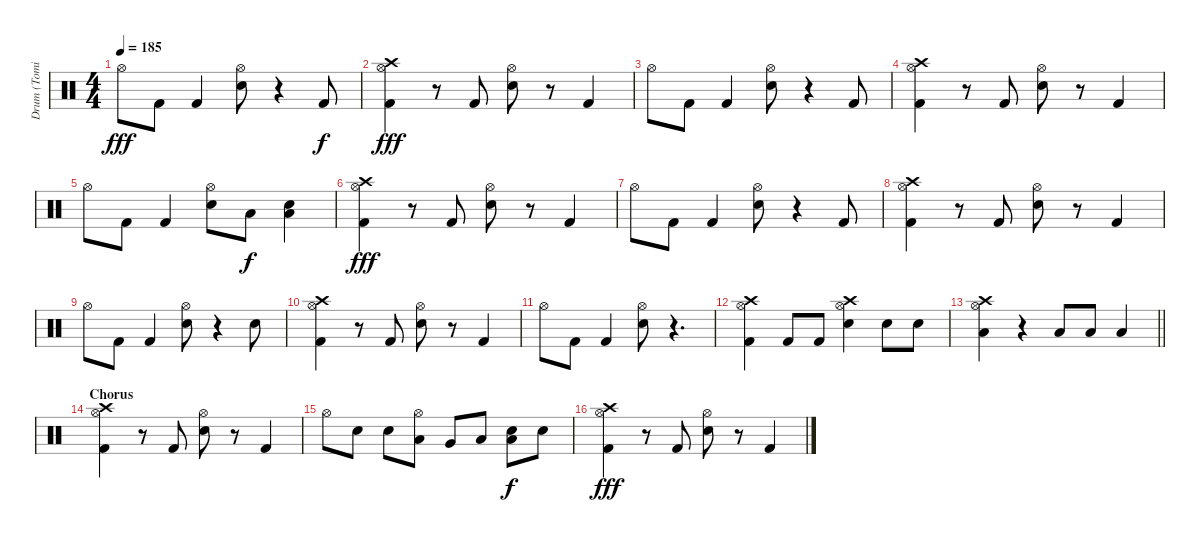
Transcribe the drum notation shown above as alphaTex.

\track ("Drum (Tomi)" "Drum (Tomi") {instrument percussion}
\staff {score}
\articulation defaults
\ts (4 4)
\tempo 185
\clef neutral
\ks c "Hi-Hat (open)".8{dy fff} "Kick (hit) 2".8 "Kick (hit) 2".4
("Hi-Hat (open)" "Electric Snare (hit)").8 r.4 "Kick (hit) 2".8{dy f} |
("Crash high (hit)" "Hi-Hat (open)" "Kick (hit) 2").4{dy fff} r.8 "Kick (hit) 2".8 ("Hi-Hat (open)" "Electric Snare (hit)").8 r.8 "Kick (hit) 2".4 |
"Hi-Hat (open)".8 "Kick (hit) 2".8 "Kick (hit) 2".4 ("Hi-Hat (open)" "Electric Snare (hit)").8 r.4 "Kick (hit) 2".8 |
("Kick (hit) 2" "Hi-Hat (open)" "Crash high (hit)").4 r.8 "Kick (hit) 2".8 ("Hi-Hat (open)" "Electric Snare (hit)").8 r.8 "Kick (hit) 2".4 |
"Hi-Hat (open)".8 "Kick (hit) 2".8 "Kick (hit) 2".4 ("Hi-Hat (open)" "Electric Snare (hit)").8 "Low Floor Tom (hit)".8{dy f} ("Electric Snare (hit)" "Low Floor Tom (hit)").4 |
("Hi-Hat (open)" "Crash high (hit)" "Kick (hit) 2").4{dy fff} r.8 "Kick (hit) 2".8 ("Hi-Hat (open)" "Electric Snare (hit)").8 r.8 "Kick (hit) 2".4 |
"Hi-Hat (open)".8 "Kick (hit) 2".8 "Kick (hit) 2".4 ("Hi-Hat (open)" "Electric Snare (hit)").8 r.4 "Kick (hit) 2".8 |
("Hi-Hat (open)" "Crash high (hit)" "Kick (hit) 2").4 r.8 "Kick (hit) 2".8 ("Hi-Hat (open)" "Electric Snare (hit)").8 r.8 "Kick (hit) 2".4 |
"Hi-Hat (open)".8 "Kick (hit) 2".8 "Kick (hit) 2".4 ("Hi-Hat (open)" "Electric Snare (hit)").8 r.4 "Electric Snare (hit)".8 |
("Hi-Hat (open)" "Crash high (hit)" "Kick (hit) 2").4 r.8 "Kick (hit) 2".8 ("Hi-Hat (open)" "Electric Snare (hit)").8 r.8 "Kick (hit) 2".4 |
"Hi-Hat (open)".8 "Kick (hit) 2".8 "Kick (hit) 2".4 ("Hi-Hat (open)" "Electric Snare (hit)").8 r.4{d} |
("Hi-Hat (open)" "Crash high (hit)" "Kick (hit) 2").4 "Kick (hit) 2".8 "Kick (hit) 2".8 ("Hi-Hat (open)" "Crash high (hit)" "Electric Snare (hit)").4 "Electric Snare (hit)".8 "Electric Snare (hit)".8 |
\barLineRight lightlight
("Crash high (hit)" "Hi-Hat (open)" "Low Tom (hit)").4 r.4 "Low Floor Tom (hit)".8 "Low Floor Tom (hit)".8 "Low Floor Tom (hit)".4 |
\section ("" "Chorus")
("Crash high (hit)" "Hi-Hat (open)" "Kick (hit) 2").4 r.8 "Kick (hit) 2".8 ("Hi-Hat (open)" "Electric Snare (hit)").8 r.8 "Kick (hit) 2".4 |
"Hi-Hat (open)".8 "Electric Snare (hit)".8 "Electric Snare (hit)".8 ("Hi-Hat (open)" "Low Tom (hit)").8 "Very Low Tom (hit)".8 "Low Floor Tom (hit)".8 ("Electric Snare (hit)" "Low Floor Tom (hit)").8{dy f} "Electric Snare (hit)".8 |
("Hi-Hat (open)" "Crash high (hit)" "Kick (hit) 2").4{dy fff} r.8 "Kick (hit) 2".8 ("Hi-Hat (open)" "Electric Snare (hit)").8 r.8 "Kick (hit) 2".4
